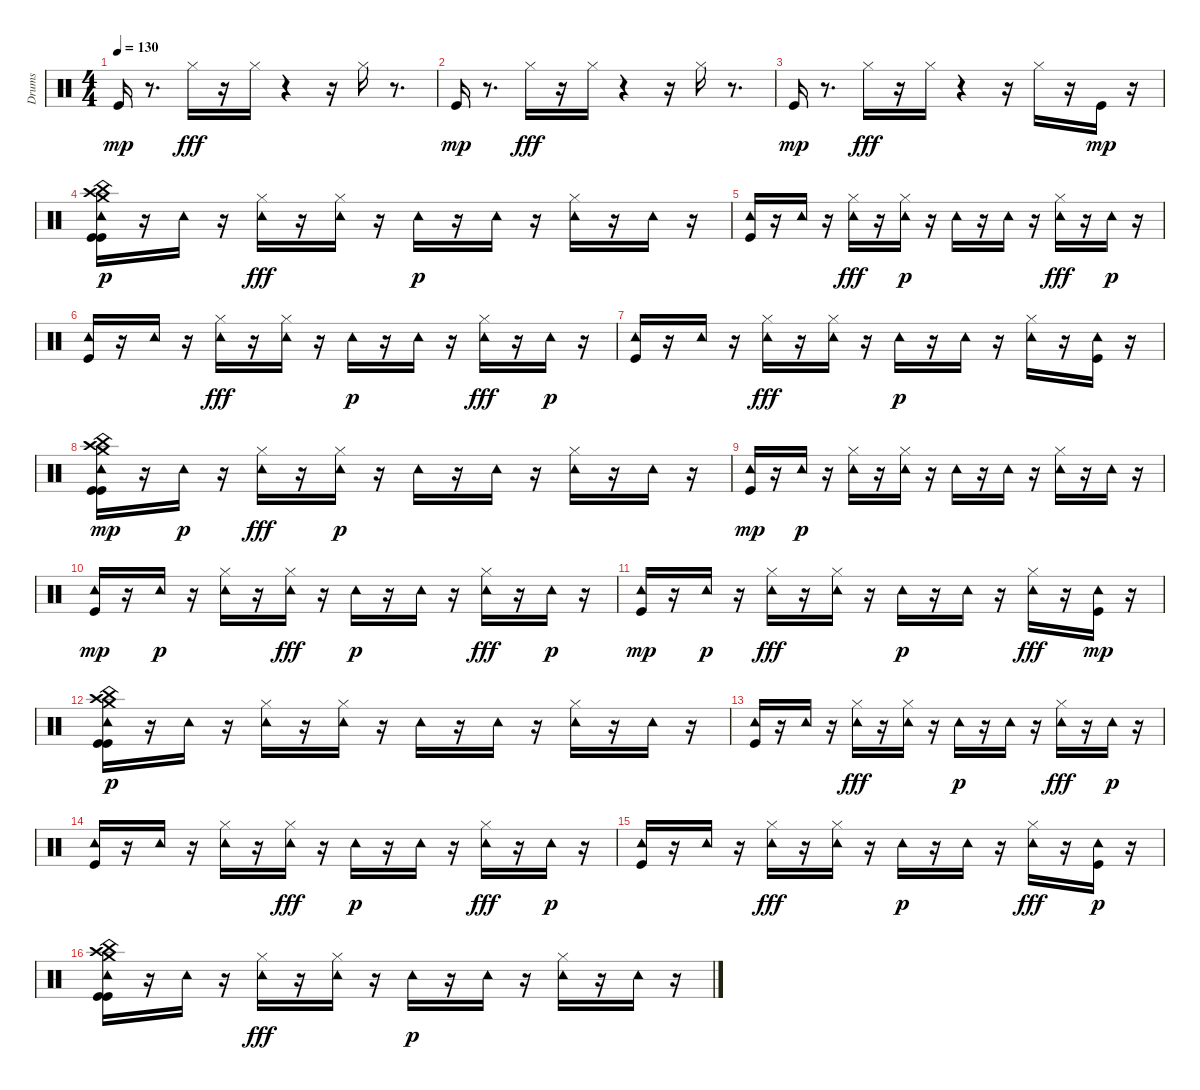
\track ("Drums" "Drums") {instrument percussion}
\staff {score}
\articulation defaults
\ts (4 4)
\tempo 130
\clef neutral
\ks c "Kick (hit)".16{dy mp}
r.8{d} "Hi-Hat (closed)".16{dy fff} r.16 "Hi-Hat (closed)".16 r.4 r.16 "Hi-Hat (closed)".16 r.8{d} |
"Kick (hit)".16{dy mp} r.8{d} "Hi-Hat (closed)".16{dy fff} r.16 "Hi-Hat (closed)".16 r.4 r.16 "Hi-Hat (closed)".16 r.8{d} |
"Kick (hit)".16{dy mp} r.8{d} "Hi-Hat (closed)".16{dy fff} r.16 "Hi-Hat (closed)".16 r.4 r.16 "Hi-Hat (closed)".16 r.16 "Kick (hit)".16{dy mp} r.16 |
("China (hit)" "Kick (hit)" "Tambourine (hit)" "Kick (hit)" "Crash medium (hit)" "Crash high (hit)").16{dy p} r.16 "Tambourine (hit)".16 r.16 ("Tambourine (hit)" "Hi-Hat (closed)").16{dy fff} r.16 ("Tambourine (hit)" "Hi-Hat (closed)").16 r.16 "Tambourine (hit)".16{dy p} r.16 "Tambourine (hit)".16 r.16 ("Hi-Hat (closed)" "Tambourine (hit)").16 r.16 "Tambourine (hit)".16 r.16 |
("Kick (hit)" "Tambourine (hit)").16 r.16 "Tambourine (hit)".16 r.16 ("Tambourine (hit)" "Hi-Hat (closed)").16{dy fff} r.16 ("Hi-Hat (closed)" "Tambourine (hit)").16{dy p} r.16 "Tambourine (hit)".16 r.16 "Tambourine (hit)".16 r.16 ("Tambourine (hit)" "Hi-Hat (closed)").16{dy fff} r.16 "Tambourine (hit)".16{dy p} r.16 |
("Kick (hit)" "Tambourine (hit)").16 r.16 "Tambourine (hit)".16 r.16 ("Tambourine (hit)" "Hi-Hat (closed)").16{dy fff} r.16 ("Tambourine (hit)" "Hi-Hat (closed)").16 r.16 "Tambourine (hit)".16{dy p} r.16 "Tambourine (hit)".16 r.16 ("Tambourine (hit)" "Hi-Hat (closed)").16{dy fff} r.16 "Tambourine (hit)".16{dy p} r.16 |
("Kick (hit)" "Tambourine (hit)").16 r.16 "Tambourine (hit)".16 r.16 ("Tambourine (hit)" "Hi-Hat (closed)").16{dy fff} r.16 ("Tambourine (hit)" "Hi-Hat (closed)").16 r.16 "Tambourine (hit)".16{dy p} r.16 "Tambourine (hit)".16 r.16 ("Hi-Hat (closed)" "Tambourine (hit)").16 r.16 ("Kick (hit)" "Tambourine (hit)").16 r.16 |
("Crash high (hit)" "Tambourine (hit)" "Crash medium (hit)" "China (hit)" "Kick (hit)" "Kick (hit)").16{dy mp} r.16 "Tambourine (hit)".16{dy p} r.16 ("Tambourine (hit)" "Hi-Hat (closed)").16{dy fff} r.16 ("Hi-Hat (closed)" "Tambourine (hit)").16{dy p} r.16 "Tambourine (hit)".16 r.16 "Tambourine (hit)".16 r.16 ("Hi-Hat (closed)" "Tambourine (hit)").16 r.16 "Tambourine (hit)".16 r.16 |
("Tambourine (hit)" "Kick (hit)").16{dy mp} r.16 "Tambourine (hit)".16{dy p} r.16 ("Hi-Hat (closed)" "Tambourine (hit)").16 r.16 ("Hi-Hat (closed)" "Tambourine (hit)").16 r.16 "Tambourine (hit)".16 r.16 "Tambourine (hit)".16 r.16 ("Hi-Hat (closed)" "Tambourine (hit)").16 r.16 "Tambourine (hit)".16 r.16 |
("Tambourine (hit)" "Kick (hit)").16{dy mp} r.16 "Tambourine (hit)".16{dy p} r.16 ("Hi-Hat (closed)" "Tambourine (hit)").16 r.16 ("Tambourine (hit)" "Hi-Hat (closed)").16{dy fff} r.16 "Tambourine (hit)".16{dy p} r.16 "Tambourine (hit)".16 r.16 ("Tambourine (hit)" "Hi-Hat (closed)").16{dy fff} r.16 "Tambourine (hit)".16{dy p} r.16 |
("Tambourine (hit)" "Kick (hit)").16{dy mp} r.16 "Tambourine (hit)".16{dy p} r.16 ("Tambourine (hit)" "Hi-Hat (closed)").16{dy fff} r.16 ("Tambourine (hit)" "Hi-Hat (closed)").16 r.16 "Tambourine (hit)".16{dy p} r.16 "Tambourine (hit)".16 r.16 ("Tambourine (hit)" "Hi-Hat (closed)").16{dy fff} r.16 ("Tambourine (hit)" "Kick (hit)").16{dy mp} r.16 |
("Kick (hit)" "Crash medium (hit)" "Tambourine (hit)" "China (hit)" "Kick (hit)" "Crash high (hit)").16{dy p} r.16 "Tambourine (hit)".16 r.16 ("Hi-Hat (closed)" "Tambourine (hit)").16 r.16 ("Hi-Hat (closed)" "Tambourine (hit)").16 r.16 "Tambourine (hit)".16 r.16 "Tambourine (hit)".16 r.16 ("Hi-Hat (closed)" "Tambourine (hit)").16 r.16 "Tambourine (hit)".16 r.16 |
("Kick (hit)" "Tambourine (hit)").16 r.16 "Tambourine (hit)".16 r.16 ("Tambourine (hit)" "Hi-Hat (closed)").16{dy fff} r.16 ("Tambourine (hit)" "Hi-Hat (closed)").16 r.16 "Tambourine (hit)".16{dy p} r.16 "Tambourine (hit)".16 r.16 ("Tambourine (hit)" "Hi-Hat (closed)").16{dy fff} r.16 "Tambourine (hit)".16{dy p} r.16 |
("Kick (hit)" "Tambourine (hit)").16 r.16 "Tambourine (hit)".16 r.16 ("Hi-Hat (closed)" "Tambourine (hit)").16 r.16 ("Tambourine (hit)" "Hi-Hat (closed)").16{dy fff} r.16 "Tambourine (hit)".16{dy p} r.16 "Tambourine (hit)".16 r.16 ("Tambourine (hit)" "Hi-Hat (closed)").16{dy fff} r.16 "Tambourine (hit)".16{dy p} r.16 |
("Kick (hit)" "Tambourine (hit)").16 r.16 "Tambourine (hit)".16 r.16 ("Tambourine (hit)" "Hi-Hat (closed)").16{dy fff} r.16 ("Tambourine (hit)" "Hi-Hat (closed)").16 r.16 "Tambourine (hit)".16{dy p} r.16 "Tambourine (hit)".16 r.16 ("Tambourine (hit)" "Hi-Hat (closed)").16{dy fff} r.16 ("Kick (hit)" "Tambourine (hit)").16{dy p} r.16 |
("Crash medium (hit)" "Kick (hit)" "China (hit)" "Kick (hit)" "Crash high (hit)" "Tambourine (hit)").16 r.16 "Tambourine (hit)".16 r.16 ("Tambourine (hit)" "Hi-Hat (closed)").16{dy fff} r.16 ("Tambourine (hit)" "Hi-Hat (closed)").16 r.16 "Tambourine (hit)".16{dy p} r.16 "Tambourine (hit)".16 r.16 ("Hi-Hat (closed)" "Tambourine (hit)").16 r.16 "Tambourine (hit)".16 r.16
